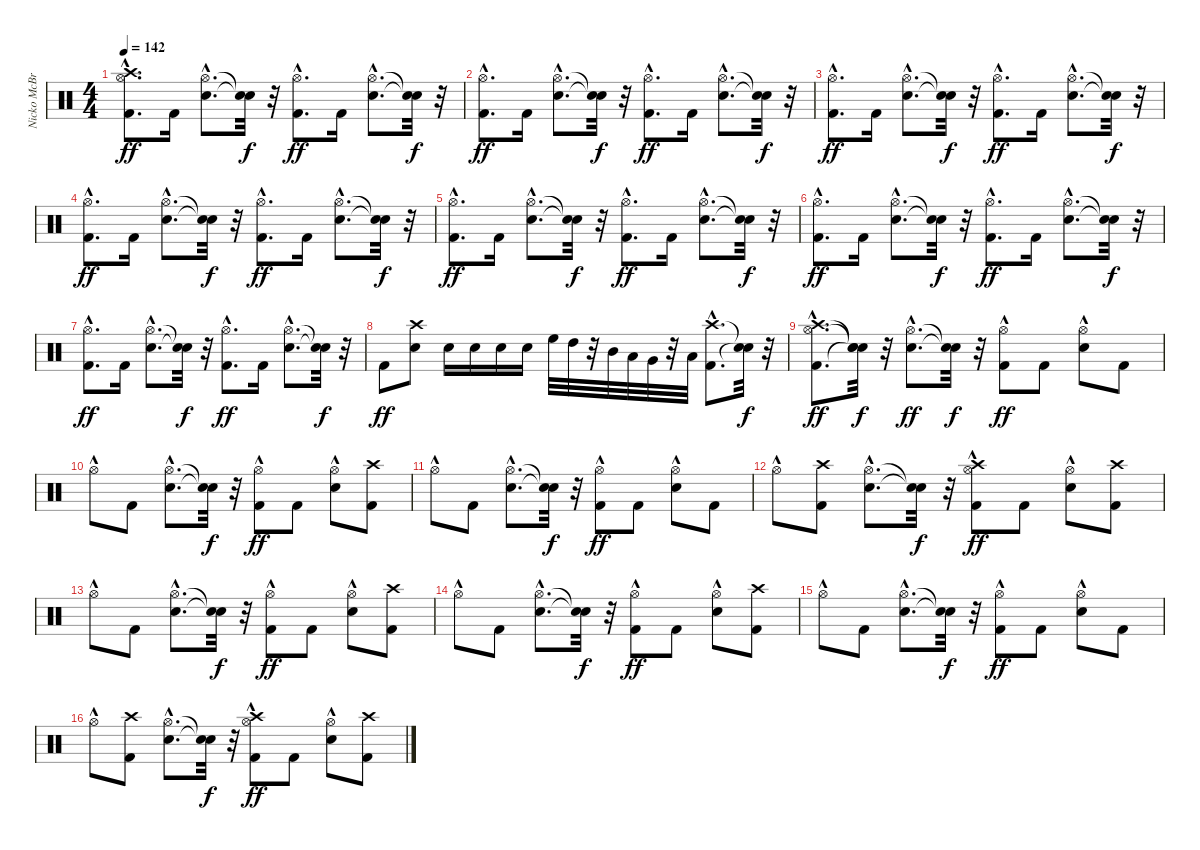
\track ("Nicko McBrain" "Nicko McBr") {instrument percussion}
\staff {score}
\articulation defaults
\ts (4 4)
\tempo 142
\clef neutral
\ks c
("Kick (hit) 2"{hac} "Hi-Hat (open)"{hac} "Crash high (hit)"{hac}).8{d dy ff} "Kick (hit) 2".16 ("Snare (hit) 2"{hac} "Hi-Hat (open)"{hac}).8{d} ("Snare (hit)"{t} "Snare (hit)"{t}).32{dy f} r.32 ("Kick (hit) 2"{hac} "Hi-Hat (open)"{hac}).8{d dy ff} "Kick (hit) 2".16 ("Snare (hit) 2"{hac} "Hi-Hat (open)"{hac}).8{d} ("Snare (hit)"{t} "Snare (hit)"{t}).32{dy f} r.32 |
("Kick (hit) 2"{hac} "Hi-Hat (open)"{hac}).8{d dy ff} "Kick (hit) 2".16 ("Snare (hit) 2"{hac} "Hi-Hat (open)"{hac}).8{d} ("Snare (hit)"{t} "Snare (hit)"{t}).32{dy f} r.32 ("Kick (hit) 2"{hac} "Hi-Hat (open)"{hac}).8{d dy ff} "Kick (hit) 2".16 ("Snare (hit) 2"{hac} "Hi-Hat (open)"{hac}).8{d} ("Snare (hit)"{t} "Snare (hit)"{t}).32{dy f} r.32 |
("Kick (hit) 2"{hac} "Hi-Hat (open)"{hac}).8{d dy ff} "Kick (hit) 2".16 ("Snare (hit) 2"{hac} "Hi-Hat (open)"{hac}).8{d} ("Snare (hit)"{t} "Snare (hit)"{t}).32{dy f} r.32 ("Kick (hit) 2"{hac} "Hi-Hat (open)"{hac}).8{d dy ff} "Kick (hit) 2".16 ("Snare (hit) 2"{hac} "Hi-Hat (open)"{hac}).8{d} ("Snare (hit)"{t} "Snare (hit)"{t}).32{dy f} r.32 |
("Kick (hit) 2"{hac} "Hi-Hat (open)"{hac}).8{d dy ff} "Kick (hit) 2".16 ("Snare (hit) 2"{hac} "Hi-Hat (open)"{hac}).8{d} ("Snare (hit)"{t} "Snare (hit)"{t}).32{dy f} r.32 ("Kick (hit) 2"{hac} "Hi-Hat (open)"{hac}).8{d dy ff} "Kick (hit) 2".16 ("Snare (hit) 2"{hac} "Hi-Hat (open)"{hac}).8{d} ("Snare (hit)"{t} "Snare (hit)"{t}).32{dy f} r.32 |
("Kick (hit) 2"{hac} "Hi-Hat (open)"{hac}).8{d dy ff} "Kick (hit) 2".16 ("Snare (hit) 2"{hac} "Hi-Hat (open)"{hac}).8{d} ("Snare (hit)"{t} "Snare (hit)"{t}).32{dy f} r.32 ("Kick (hit) 2"{hac} "Hi-Hat (open)"{hac}).8{d dy ff} "Kick (hit) 2".16 ("Snare (hit) 2"{hac} "Hi-Hat (open)"{hac}).8{d} ("Snare (hit)"{t} "Snare (hit)"{t}).32{dy f} r.32 |
("Kick (hit) 2"{hac} "Hi-Hat (open)"{hac}).8{d dy ff} "Kick (hit) 2".16 ("Snare (hit) 2"{hac} "Hi-Hat (open)"{hac}).8{d} ("Snare (hit)"{t} "Snare (hit)"{t}).32{dy f} r.32 ("Kick (hit) 2"{hac} "Hi-Hat (open)"{hac}).8{d dy ff} "Kick (hit) 2".16 ("Snare (hit) 2"{hac} "Hi-Hat (open)"{hac}).8{d} ("Snare (hit)"{t} "Snare (hit)"{t}).32{dy f} r.32 |
("Kick (hit) 2"{hac} "Hi-Hat (open)"{hac}).8{d dy ff} "Kick (hit) 2".16 ("Snare (hit) 2"{hac} "Hi-Hat (open)"{hac}).8{d} ("Snare (hit)"{t} "Snare (hit)"{t}).32{dy f} r.32 ("Kick (hit) 2"{hac} "Hi-Hat (open)"{hac}).8{d dy ff} "Kick (hit) 2".16 ("Snare (hit) 2"{hac} "Hi-Hat (open)"{hac}).8{d} ("Snare (hit)"{t} "Snare (hit)"{t}).32{dy f} r.32 |
"Kick (hit) 2".8{dy ff} ("Snare (hit) 2" "Crash high (hit)").8 "Snare (hit) 2".16 "Snare (hit) 2".16 "Snare (hit) 2".16 "Snare (hit) 2".16 "High Floor Tom (hit)".32 "High Tom (hit)".32 r.32 "Mid Tom (hit)".32 "Low Tom (hit)".32 "Very Low Tom (hit)".32 r.32 "Low Floor Tom (hit)".32 ("Kick (hit) 2"{hac} "Crash high (hit)"{hac}).8{d} ("Snare (hit)"{t} "Snare (hit)"{t}).32{dy f} r.32 |
("Kick (hit) 2"{hac} "Hi-Hat (open)"{hac} "Crash high (hit)"{hac}).8{d dy ff} ("Snare (hit)"{t} "Snare (hit)"{t} "Snare (hit)"{t}).32{dy f} r.32 ("Snare (hit) 2"{hac} "Hi-Hat (open)"{hac}).8{d dy ff} ("Snare (hit)"{t} "Snare (hit)"{t}).32{dy f} r.32 ("Kick (hit) 2" "Hi-Hat (open)"{hac}).8{dy ff} "Kick (hit) 2".8 ("Snare (hit) 2" "Hi-Hat (open)"{hac}).8 "Kick (hit) 2".8 |
"Hi-Hat (open)"{hac}.8 "Kick (hit) 2".8 ("Snare (hit) 2"{hac} "Hi-Hat (open)"{hac}).8{d} ("Snare (hit)"{t} "Snare (hit)"{t}).32{dy f} r.32 ("Kick (hit) 2" "Hi-Hat (open)"{hac}).8{dy ff} "Kick (hit) 2".8 ("Snare (hit) 2" "Hi-Hat (open)"{hac}).8 ("Kick (hit) 2" "Crash high (hit)").8 |
"Hi-Hat (open)"{hac}.8 "Kick (hit) 2".8 ("Snare (hit) 2"{hac} "Hi-Hat (open)"{hac}).8{d} ("Snare (hit)"{t} "Snare (hit)"{t}).32{dy f} r.32 ("Kick (hit) 2" "Hi-Hat (open)"{hac}).8{dy ff} "Kick (hit) 2".8 ("Snare (hit) 2" "Hi-Hat (open)"{hac}).8 "Kick (hit) 2".8 |
"Hi-Hat (open)"{hac}.8 ("Kick (hit) 2" "Crash high (hit)").8 ("Snare (hit) 2"{hac} "Hi-Hat (open)"{hac}).8{d} ("Snare (hit)"{t} "Snare (hit)"{t}).32{dy f} r.32 ("Kick (hit) 2" "Hi-Hat (open)"{hac} "Crash high (hit)"{hac}).8{dy ff} "Kick (hit) 2".8 ("Snare (hit) 2" "Hi-Hat (open)"{hac}).8 ("Kick (hit) 2" "Crash high (hit)").8 |
"Hi-Hat (open)"{hac}.8 "Kick (hit) 2".8 ("Snare (hit) 2"{hac} "Hi-Hat (open)"{hac}).8{d} ("Snare (hit)"{t} "Snare (hit)"{t}).32{dy f} r.32 ("Kick (hit) 2" "Hi-Hat (open)"{hac}).8{dy ff} "Kick (hit) 2".8 ("Snare (hit) 2" "Hi-Hat (open)"{hac}).8 ("Kick (hit) 2" "Crash high (hit)").8 |
"Hi-Hat (open)"{hac}.8 "Kick (hit) 2".8 ("Snare (hit) 2"{hac} "Hi-Hat (open)"{hac}).8{d} ("Snare (hit)"{t} "Snare (hit)"{t}).32{dy f} r.32 ("Kick (hit) 2" "Hi-Hat (open)"{hac}).8{dy ff} "Kick (hit) 2".8 ("Snare (hit) 2" "Hi-Hat (open)"{hac}).8 ("Kick (hit) 2" "Crash high (hit)").8 |
"Hi-Hat (open)"{hac}.8 "Kick (hit) 2".8 ("Snare (hit) 2"{hac} "Hi-Hat (open)"{hac}).8{d} ("Snare (hit)"{t} "Snare (hit)"{t}).32{dy f} r.32 ("Kick (hit) 2" "Hi-Hat (open)"{hac}).8{dy ff} "Kick (hit) 2".8 ("Snare (hit) 2" "Hi-Hat (open)"{hac}).8 "Kick (hit) 2".8 |
"Hi-Hat (open)"{hac}.8 ("Kick (hit) 2" "Crash high (hit)").8 ("Snare (hit) 2"{hac} "Hi-Hat (open)"{hac}).8{d} ("Snare (hit)"{t} "Snare (hit)"{t}).32{dy f} r.32 ("Kick (hit) 2" "Hi-Hat (open)"{hac} "Crash high (hit)"{hac}).8{dy ff} "Kick (hit) 2".8 ("Snare (hit) 2" "Hi-Hat (open)"{hac}).8 ("Kick (hit) 2" "Crash high (hit)").8
